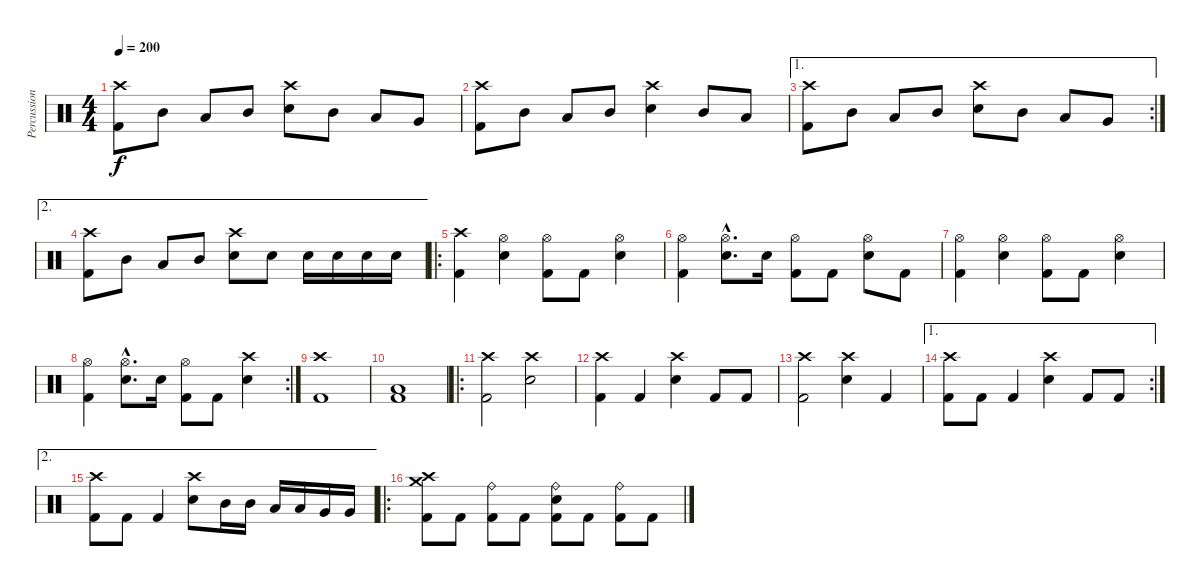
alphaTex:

\track ("Percussions" "Percussion") {instrument percussion}
\staff {score}
\articulation defaults
\ts (4 4)
\tempo 200
\clef neutral
\ks c
("Crash high (hit)" "Kick (hit) 2").8{dy f} "Mid Tom (hit)".8 "Low Tom (hit)".8 "Mid Tom (hit)".8 ("Crash high (hit)" "Snare (hit) 2").8 "Mid Tom (hit)".8 "Low Tom (hit)".8 "Very Low Tom (hit)".8 |
("Crash high (hit)" "Kick (hit) 2").8 "Mid Tom (hit)".8 "Low Tom (hit)".8 "Mid Tom (hit)".8 ("Crash high (hit)" "Snare (hit) 2").4 "Mid Tom (hit)".8 "Low Tom (hit)".8 |
\ae 1
\rc 2
("Crash high (hit)" "Kick (hit) 2").8 "Mid Tom (hit)".8 "Low Tom (hit)".8 "Mid Tom (hit)".8 ("Crash high (hit)" "Snare (hit) 2").8 "Mid Tom (hit)".8 "Low Tom (hit)".8 "Very Low Tom (hit)".8 |
\ae 2
("Crash high (hit)" "Kick (hit) 2").8 "Mid Tom (hit)".8 "Low Tom (hit)".8 "Mid Tom (hit)".8 ("Crash high (hit)" "Snare (hit) 2").8 "Snare (hit) 2".8 "Snare (hit) 2".16 "Snare (hit) 2".16 "Snare (hit) 2".16 "Snare (hit) 2".16 |
\ro
("Crash high (hit)" "Kick (hit) 2").4 ("Hi-Hat (open)" "Snare (hit) 2").4 ("Hi-Hat (open)" "Kick (hit) 2").8 "Kick (hit) 2".8 ("Hi-Hat (open)" "Snare (hit) 2").4 |
("Hi-Hat (open)" "Kick (hit) 2").4 ("Hi-Hat (open)"{hac} "Snare (hit) 2"{hac}).8{d} "Snare (hit) 2".16 ("Hi-Hat (open)" "Kick (hit) 2").8 "Kick (hit) 2".8 ("Hi-Hat (open)" "Snare (hit) 2").8 "Kick (hit) 2".8 |
("Hi-Hat (open)" "Kick (hit) 2").4 ("Hi-Hat (open)" "Snare (hit) 2").4 ("Hi-Hat (open)" "Kick (hit) 2").8 "Kick (hit) 2".8 ("Hi-Hat (open)" "Snare (hit) 2").4 |
\rc 2
("Hi-Hat (open)" "Kick (hit) 2").4 ("Hi-Hat (open)"{hac} "Snare (hit) 2"{hac}).8{d} "Snare (hit) 2".16 ("Hi-Hat (open)" "Kick (hit) 2").8 "Kick (hit) 2".8 ("Crash high (hit)" "Snare (hit) 2").4 |
("Crash high (hit)" "Kick (hit) 2").1 |
("Low Floor Tom (hit)" "Kick (hit) 2").1 |
\ro
("Crash high (hit)" "Kick (hit) 2").2 ("Crash high (hit)" "Snare (hit) 2").2 |
("Crash high (hit)" "Kick (hit) 2").4 "Kick (hit) 2".4 ("Crash high (hit)" "Snare (hit) 2").4 "Kick (hit) 2".8 "Kick (hit) 2".8 |
("Crash high (hit)" "Kick (hit) 2").2 ("Crash high (hit)" "Snare (hit) 2").4 "Kick (hit) 2".4 |
\ae 1
\rc 2
("Crash high (hit)" "Kick (hit) 2").8 "Kick (hit) 2".8 "Kick (hit) 2".4 ("Crash high (hit)" "Snare (hit) 2").4 "Kick (hit) 2".8 "Kick (hit) 2".8 |
\ae 2
("Crash high (hit)" "Kick (hit) 2").8 "Kick (hit) 2".8 "Kick (hit) 2".4 ("Crash high (hit)" "Snare (hit) 2").8 "Mid Tom (hit)".16 "Mid Tom (hit)".16 "Low Tom (hit)".16 "Low Tom (hit)".16 "Very Low Tom (hit)".16 "Very Low Tom (hit)".16 |
\ro
("Crash high (hit)" "Crash medium (hit)" "Kick (hit) 2").8 "Kick (hit) 2".8 ("Ride (bell)" "Kick (hit) 2").8 "Kick (hit) 2".8 ("Ride (bell)" "Snare (hit) 2" "Kick (hit) 2").8 "Kick (hit) 2".8 ("Ride (bell)" "Kick (hit) 2").8 "Kick (hit) 2".8
